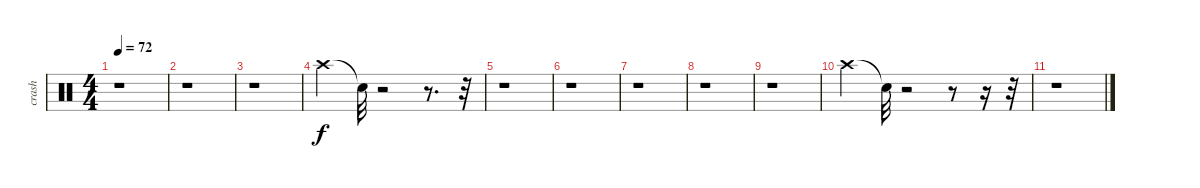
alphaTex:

\track ("crash" "crash") {instrument percussion}
\staff {score}
\articulation defaults
\ts (4 4)
\tempo 72
\clef neutral
\ks c
r.1{dy f} |
r.1 |
r.1 |
"Crash high (hit)".4 "Snare (hit)"{t}.32 r.2 r.8{d} r.32 |
r.1 |
r.1 |
r.1 |
r.1 |
r.1 |
"Crash high (hit)".4 "Snare (hit)"{t}.32 r.2 r.8 r.16 r.32 |
r.1
